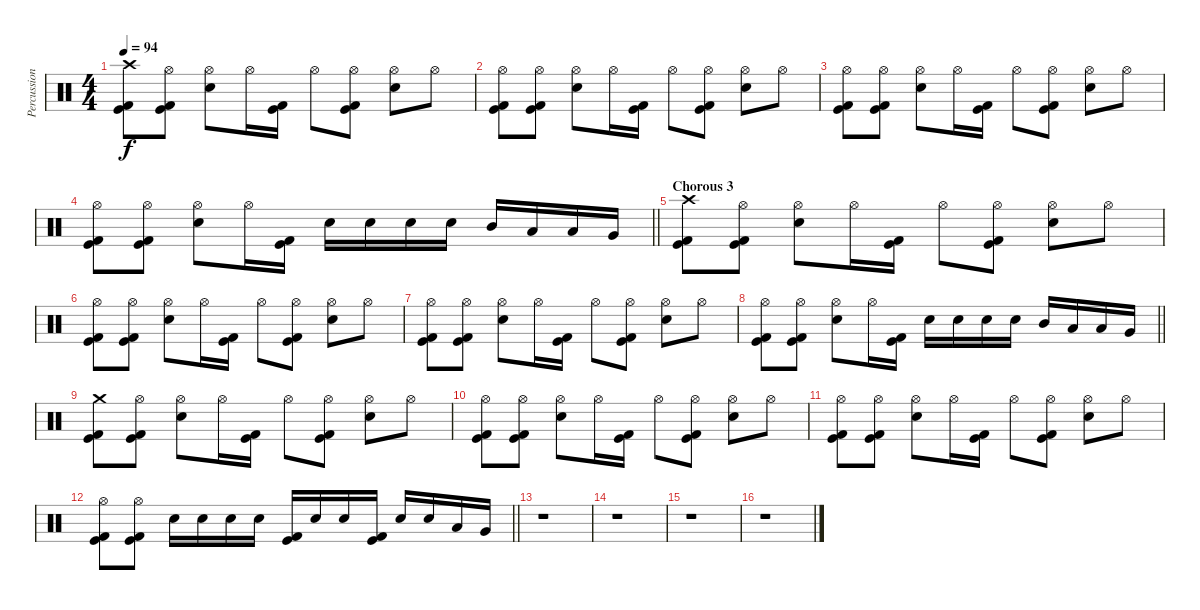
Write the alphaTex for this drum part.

\track ("Percussion" "Percussion") {instrument percussion}
\staff {score}
\articulation defaults
\ts (4 4)
\section ("" "")
\tempo 94
\clef neutral
\ks c
("Crash high (hit)" "Kick (hit)" "Kick (hit) 2").8{dy f} ("Hi-Hat (open)" "Kick (hit)" "Kick (hit) 2").8 ("Hi-Hat (open)" "Electric Snare (hit)").8 "Hi-Hat (open)".16 ("Kick (hit)" "Kick (hit) 2").16 "Hi-Hat (open)".8 ("Hi-Hat (open)" "Kick (hit)" "Kick (hit) 2").8 ("Hi-Hat (open)" "Electric Snare (hit)").8 "Hi-Hat (open)".8 |
("Hi-Hat (open)" "Kick (hit)" "Kick (hit) 2").8 ("Hi-Hat (open)" "Kick (hit)" "Kick (hit) 2").8 ("Hi-Hat (open)" "Electric Snare (hit)").8 "Hi-Hat (open)".16 ("Kick (hit)" "Kick (hit) 2").16 "Hi-Hat (open)".8 ("Hi-Hat (open)" "Kick (hit)" "Kick (hit) 2").8 ("Hi-Hat (open)" "Electric Snare (hit)").8 "Hi-Hat (open)".8 |
("Hi-Hat (open)" "Kick (hit)" "Kick (hit) 2").8 ("Hi-Hat (open)" "Kick (hit)" "Kick (hit) 2").8 ("Hi-Hat (open)" "Electric Snare (hit)").8 "Hi-Hat (open)".16 ("Kick (hit)" "Kick (hit) 2").16 "Hi-Hat (open)".8 ("Hi-Hat (open)" "Kick (hit)" "Kick (hit) 2").8 ("Hi-Hat (open)" "Electric Snare (hit)").8 "Hi-Hat (open)".8 |
\barLineRight lightlight
("Hi-Hat (open)" "Kick (hit)" "Kick (hit) 2").8 ("Hi-Hat (open)" "Kick (hit)" "Kick (hit) 2").8 ("Hi-Hat (open)" "Electric Snare (hit)").8 "Hi-Hat (open)".16 ("Kick (hit)" "Kick (hit) 2").16 "Electric Snare (hit)".16 "Electric Snare (hit)".16 "Electric Snare (hit)".16 "Electric Snare (hit)".16 "Mid Tom (hit)".16 "Low Tom (hit)".16 "Low Tom (hit)".16 "Very Low Tom (hit)".16 |
\section ("" "Chorous 3")
("Crash high (hit)" "Kick (hit)" "Kick (hit) 2").8 ("Hi-Hat (open)" "Kick (hit)" "Kick (hit) 2").8 ("Hi-Hat (open)" "Electric Snare (hit)").8 "Hi-Hat (open)".16 ("Kick (hit)" "Kick (hit) 2").16 "Hi-Hat (open)".8 ("Hi-Hat (open)" "Kick (hit)" "Kick (hit) 2").8 ("Hi-Hat (open)" "Electric Snare (hit)").8 "Hi-Hat (open)".8 |
("Hi-Hat (open)" "Kick (hit)" "Kick (hit) 2").8 ("Hi-Hat (open)" "Kick (hit)" "Kick (hit) 2").8 ("Hi-Hat (open)" "Electric Snare (hit)").8 "Hi-Hat (open)".16 ("Kick (hit)" "Kick (hit) 2").16 "Hi-Hat (open)".8 ("Hi-Hat (open)" "Kick (hit)" "Kick (hit) 2").8 ("Hi-Hat (open)" "Electric Snare (hit)").8 "Hi-Hat (open)".8 |
("Hi-Hat (open)" "Kick (hit)" "Kick (hit) 2").8 ("Hi-Hat (open)" "Kick (hit)" "Kick (hit) 2").8 ("Hi-Hat (open)" "Electric Snare (hit)").8 "Hi-Hat (open)".16 ("Kick (hit)" "Kick (hit) 2").16 "Hi-Hat (open)".8 ("Hi-Hat (open)" "Kick (hit)" "Kick (hit) 2").8 ("Hi-Hat (open)" "Electric Snare (hit)").8 "Hi-Hat (open)".8 |
\barLineRight lightlight
("Hi-Hat (open)" "Kick (hit)" "Kick (hit) 2").8 ("Hi-Hat (open)" "Kick (hit)" "Kick (hit) 2").8 ("Hi-Hat (open)" "Electric Snare (hit)").8 "Hi-Hat (open)".16 ("Kick (hit)" "Kick (hit) 2").16 "Electric Snare (hit)".16 "Electric Snare (hit)".16 "Electric Snare (hit)".16 "Electric Snare (hit)".16 "Mid Tom (hit)".16 "Low Tom (hit)".16 "Low Tom (hit)".16 "Very Low Tom (hit)".16 |
("Crash medium (hit)" "Kick (hit)" "Kick (hit) 2").8 ("Hi-Hat (open)" "Kick (hit)" "Kick (hit) 2").8 ("Hi-Hat (open)" "Electric Snare (hit)").8 "Hi-Hat (open)".16 ("Kick (hit)" "Kick (hit) 2").16 "Hi-Hat (open)".8 ("Hi-Hat (open)" "Kick (hit)" "Kick (hit) 2").8 ("Hi-Hat (open)" "Electric Snare (hit)").8 "Hi-Hat (open)".8 |
("Hi-Hat (open)" "Kick (hit)" "Kick (hit) 2").8 ("Hi-Hat (open)" "Kick (hit)" "Kick (hit) 2").8 ("Hi-Hat (open)" "Electric Snare (hit)").8 "Hi-Hat (open)".16 ("Kick (hit)" "Kick (hit) 2").16 "Hi-Hat (open)".8 ("Hi-Hat (open)" "Kick (hit)" "Kick (hit) 2").8 ("Hi-Hat (open)" "Electric Snare (hit)").8 "Hi-Hat (open)".8 |
("Hi-Hat (open)" "Kick (hit)" "Kick (hit) 2").8 ("Hi-Hat (open)" "Kick (hit)" "Kick (hit) 2").8 ("Hi-Hat (open)" "Electric Snare (hit)").8 "Hi-Hat (open)".16 ("Kick (hit)" "Kick (hit) 2").16 "Hi-Hat (open)".8 ("Hi-Hat (open)" "Kick (hit)" "Kick (hit) 2").8 ("Hi-Hat (open)" "Electric Snare (hit)").8 "Hi-Hat (open)".8 |
\barLineRight lightlight
("Hi-Hat (open)" "Kick (hit)" "Kick (hit) 2").8 ("Hi-Hat (open)" "Kick (hit)" "Kick (hit) 2").8 "Electric Snare (hit)".16 "Electric Snare (hit)".16 "Electric Snare (hit)".16 "Electric Snare (hit)".16 ("Kick (hit)" "Kick (hit) 2").16 "Electric Snare (hit)".16 "Electric Snare (hit)".16 ("Kick (hit)" "Kick (hit) 2").16 "Electric Snare (hit)".16 "Electric Snare (hit)".16 "Low Tom (hit)".16 "Very Low Tom (hit)".16 |
\section ("" "")
r.1{volume 0} |
r.1 |
r.1 |
r.1
